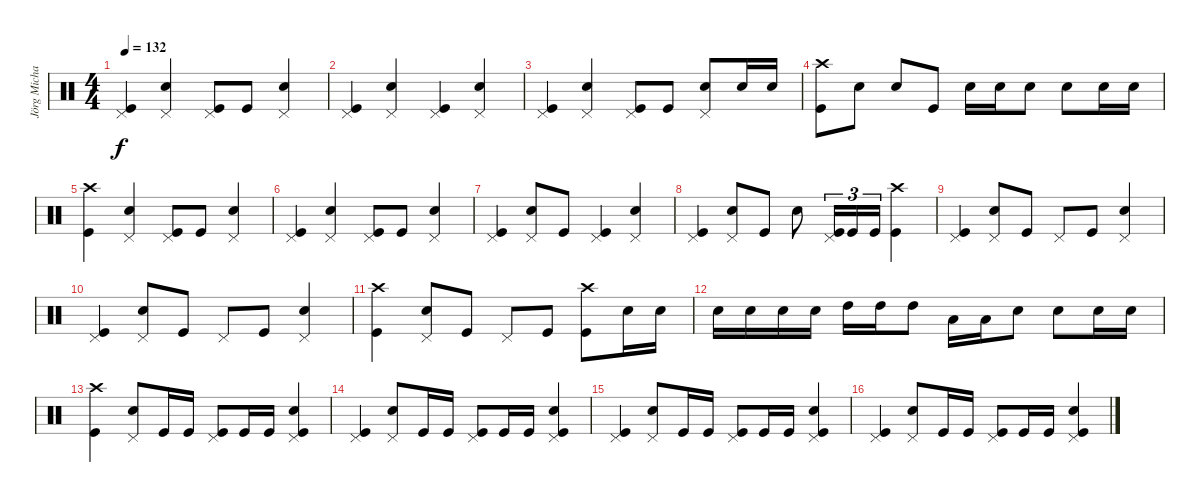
\track ("Jörg Michael (Drums)" "Jörg Micha") {instrument percussion}
\staff {score}
\articulation defaults
\ts (4 4)
\tempo 132
\clef neutral
\ks c
("Pedal Hi-Hat (hit)" "Kick (hit)").4{dy f} ("Pedal Hi-Hat (hit)" "Snare (hit) 2").4 ("Pedal Hi-Hat (hit)" "Kick (hit)").8 "Kick (hit)".8 ("Pedal Hi-Hat (hit)" "Snare (hit) 2").4 |
("Pedal Hi-Hat (hit)" "Kick (hit)").4 ("Pedal Hi-Hat (hit)" "Snare (hit) 2").4 ("Pedal Hi-Hat (hit)" "Kick (hit)").4 ("Pedal Hi-Hat (hit)" "Snare (hit) 2").4 |
("Pedal Hi-Hat (hit)" "Kick (hit)").4 ("Pedal Hi-Hat (hit)" "Snare (hit) 2").4 ("Pedal Hi-Hat (hit)" "Kick (hit)").8 "Kick (hit)".8 ("Pedal Hi-Hat (hit)" "Snare (hit) 2").8 "Snare (hit) 2".16 "Snare (hit) 2".16 |
("Crash high (hit)" "Kick (hit)").8 "Snare (hit) 2".8 "Snare (hit) 2".8 "Kick (hit)".8 "Snare (hit) 2".16 "Snare (hit) 2".16 "Snare (hit) 2".8 "Snare (hit) 2".8 "Snare (hit) 2".16 "Snare (hit) 2".16 |
("Crash high (hit)" "Kick (hit)").4 ("Pedal Hi-Hat (hit)" "Snare (hit) 2").4 ("Pedal Hi-Hat (hit)" "Kick (hit)").8 "Kick (hit)".8 ("Pedal Hi-Hat (hit)" "Snare (hit) 2").4 |
("Pedal Hi-Hat (hit)" "Kick (hit)").4 ("Pedal Hi-Hat (hit)" "Snare (hit) 2").4 ("Pedal Hi-Hat (hit)" "Kick (hit)").8 "Kick (hit)".8 ("Pedal Hi-Hat (hit)" "Snare (hit) 2").4 |
("Pedal Hi-Hat (hit)" "Kick (hit)").4 ("Pedal Hi-Hat (hit)" "Snare (hit) 2").8 "Kick (hit)".8 ("Pedal Hi-Hat (hit)" "Kick (hit)").4 ("Pedal Hi-Hat (hit)" "Snare (hit) 2").4 |
("Pedal Hi-Hat (hit)" "Kick (hit)").4 ("Pedal Hi-Hat (hit)" "Snare (hit) 2").8 "Kick (hit)".8 "Snare (hit) 2".8 ("Pedal Hi-Hat (hit)" "Kick (hit)").16{tu (3 2)} "Kick (hit)".16{tu (3 2)} "Kick (hit)".16{tu (3 2)} ("Crash high (hit)" "Kick (hit)").4 |
("Pedal Hi-Hat (hit)" "Kick (hit)").4 ("Pedal Hi-Hat (hit)" "Snare (hit) 2").8 "Kick (hit)".8 "Pedal Hi-Hat (hit)".8 "Kick (hit)".8 ("Pedal Hi-Hat (hit)" "Snare (hit) 2").4 |
("Pedal Hi-Hat (hit)" "Kick (hit)").4 ("Pedal Hi-Hat (hit)" "Snare (hit) 2").8 "Kick (hit)".8 "Pedal Hi-Hat (hit)".8 "Kick (hit)".8 ("Pedal Hi-Hat (hit)" "Snare (hit) 2").4 |
("Crash high (hit)" "Kick (hit)").4 ("Pedal Hi-Hat (hit)" "Snare (hit) 2").8 "Kick (hit)".8 "Pedal Hi-Hat (hit)".8 "Kick (hit)".8 ("Crash high (hit)" "Kick (hit)").8 "Snare (hit) 2".16 "Snare (hit) 2".16 |
"Snare (hit) 2".16 "Snare (hit) 2".16 "Snare (hit) 2".16 "Snare (hit) 2".16 "High Tom (hit)".16 "High Tom (hit)".16 "High Tom (hit)".8 "Low Tom (hit)".16 "Low Tom (hit)".16 "Snare (hit) 2".8 "Snare (hit) 2".8 "Snare (hit) 2".16 "Snare (hit) 2".16 |
("Crash high (hit)" "Kick (hit)").4 ("Pedal Hi-Hat (hit)" "Snare (hit) 2").8 "Kick (hit)".16 "Kick (hit)".16 ("Pedal Hi-Hat (hit)" "Kick (hit)").8 "Kick (hit)".16 "Kick (hit)".16 ("Pedal Hi-Hat (hit)" "Kick (hit)" "Snare (hit) 2").4 |
("Pedal Hi-Hat (hit)" "Kick (hit)").4 ("Pedal Hi-Hat (hit)" "Snare (hit) 2").8 "Kick (hit)".16 "Kick (hit)".16 ("Pedal Hi-Hat (hit)" "Kick (hit)").8 "Kick (hit)".16 "Kick (hit)".16 ("Pedal Hi-Hat (hit)" "Kick (hit)" "Snare (hit) 2").4 |
("Pedal Hi-Hat (hit)" "Kick (hit)").4 ("Pedal Hi-Hat (hit)" "Snare (hit) 2").8 "Kick (hit)".16 "Kick (hit)".16 ("Pedal Hi-Hat (hit)" "Kick (hit)").8 "Kick (hit)".16 "Kick (hit)".16 ("Pedal Hi-Hat (hit)" "Kick (hit)" "Snare (hit) 2").4 |
("Pedal Hi-Hat (hit)" "Kick (hit)").4 ("Pedal Hi-Hat (hit)" "Snare (hit) 2").8 "Kick (hit)".16 "Kick (hit)".16 ("Pedal Hi-Hat (hit)" "Kick (hit)").8 "Kick (hit)".16 "Kick (hit)".16 ("Pedal Hi-Hat (hit)" "Kick (hit)" "Snare (hit) 2").4
